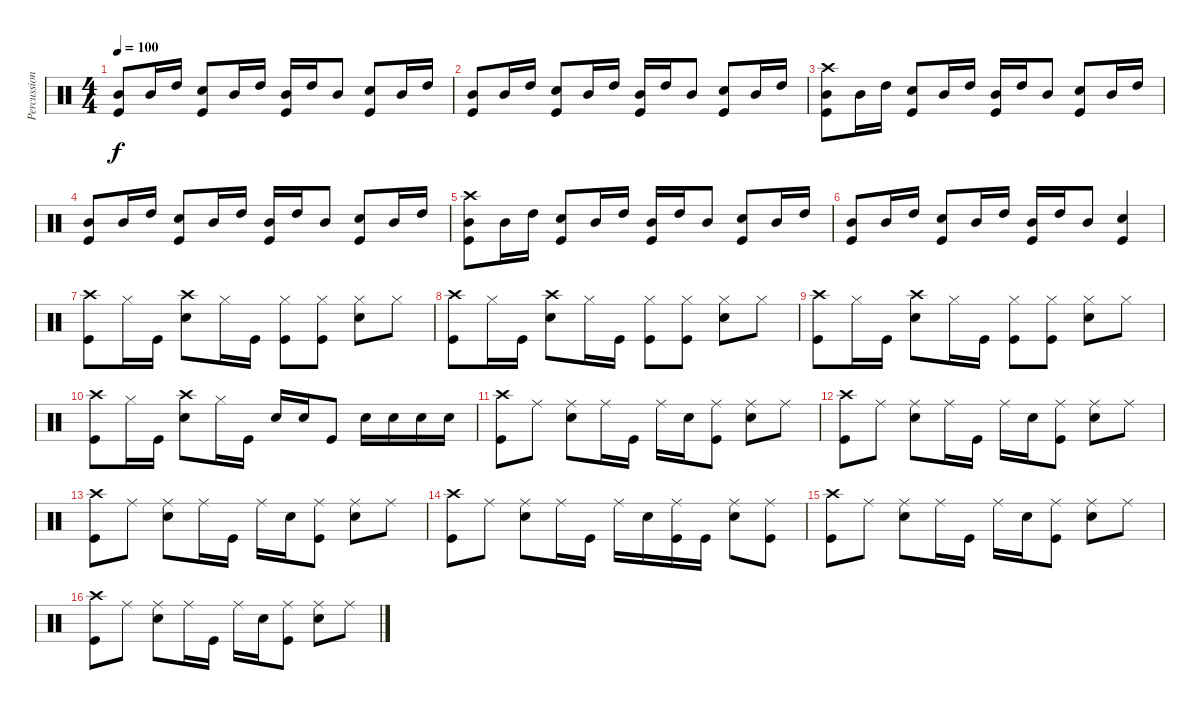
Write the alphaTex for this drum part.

\track ("Percussions" "Percussion") {instrument percussion}
\staff {score}
\articulation defaults
\ts (4 4)
\tempo 100
\clef neutral
\ks c
("Kick (hit)" "Mid Tom (hit)").8{dy f} "Mid Tom (hit)".16 "High Tom (hit)".16 ("Snare (hit) 2" "Kick (hit)").8 "Mid Tom (hit)".16 "High Tom (hit)".16 ("Kick (hit)" "Mid Tom (hit)").16 "High Tom (hit)".16 "Mid Tom (hit)".8 ("Snare (hit) 2" "Kick (hit)").8 "Mid Tom (hit)".16 "High Tom (hit)".16 |
("Kick (hit)" "Mid Tom (hit)").8 "Mid Tom (hit)".16 "High Tom (hit)".16 ("Snare (hit) 2" "Kick (hit)").8 "Mid Tom (hit)".16 "High Tom (hit)".16 ("Kick (hit)" "Mid Tom (hit)").16 "High Tom (hit)".16 "Mid Tom (hit)".8 ("Snare (hit) 2" "Kick (hit)").8 "Mid Tom (hit)".16 "High Tom (hit)".16 |
("Kick (hit)" "Mid Tom (hit)" "Crash high (hit)").8 "Mid Tom (hit)".16 "High Tom (hit)".16 ("Snare (hit) 2" "Kick (hit)").8 "Mid Tom (hit)".16 "High Tom (hit)".16 ("Kick (hit)" "Mid Tom (hit)").16 "High Tom (hit)".16 "Mid Tom (hit)".8 ("Snare (hit) 2" "Kick (hit)").8 "Mid Tom (hit)".16 "High Tom (hit)".16 |
("Kick (hit)" "Mid Tom (hit)").8 "Mid Tom (hit)".16 "High Tom (hit)".16 ("Snare (hit) 2" "Kick (hit)").8 "Mid Tom (hit)".16 "High Tom (hit)".16 ("Kick (hit)" "Mid Tom (hit)").16 "High Tom (hit)".16 "Mid Tom (hit)".8 ("Snare (hit) 2" "Kick (hit)").8 "Mid Tom (hit)".16 "High Tom (hit)".16 |
("Kick (hit)" "Mid Tom (hit)" "Crash high (hit)").8 "Mid Tom (hit)".16 "High Tom (hit)".16 ("Snare (hit) 2" "Kick (hit)").8 "Mid Tom (hit)".16 "High Tom (hit)".16 ("Kick (hit)" "Mid Tom (hit)").16 "High Tom (hit)".16 "Mid Tom (hit)".8 ("Snare (hit) 2" "Kick (hit)").8 "Mid Tom (hit)".16 "High Tom (hit)".16 |
("Kick (hit)" "Mid Tom (hit)").8 "Mid Tom (hit)".16 "High Tom (hit)".16 ("Snare (hit) 2" "Kick (hit)").8 "Mid Tom (hit)".16 "High Tom (hit)".16 ("Kick (hit)" "Mid Tom (hit)").16 "High Tom (hit)".16 "Mid Tom (hit)".8 ("Snare (hit) 2" "Kick (hit)").4 |
("Crash high (hit)" "Kick (hit)").8 "Hi-Hat (closed)".16 "Kick (hit)".16 ("Crash high (hit)" "Snare (hit) 2").8 "Hi-Hat (closed)".16 "Kick (hit)".16 ("Kick (hit)" "Hi-Hat (closed)").8 ("Kick (hit)" "Hi-Hat (closed)").8 ("Snare (hit) 2" "Hi-Hat (closed)").8 "Hi-Hat (closed)".8 |
("Crash high (hit)" "Kick (hit)").8 "Hi-Hat (closed)".16 "Kick (hit)".16 ("Crash high (hit)" "Snare (hit) 2").8 "Hi-Hat (closed)".16 "Kick (hit)".16 ("Kick (hit)" "Hi-Hat (closed)").8 ("Kick (hit)" "Hi-Hat (closed)").8 ("Snare (hit) 2" "Hi-Hat (closed)").8 "Hi-Hat (closed)".8 |
("Crash high (hit)" "Kick (hit)").8 "Hi-Hat (closed)".16 "Kick (hit)".16 ("Crash high (hit)" "Snare (hit) 2").8 "Hi-Hat (closed)".16 "Kick (hit)".16 ("Kick (hit)" "Hi-Hat (closed)").8 ("Kick (hit)" "Hi-Hat (closed)").8 ("Snare (hit) 2" "Hi-Hat (closed)").8 "Hi-Hat (closed)".8 |
("Crash high (hit)" "Kick (hit)").8 "Hi-Hat (closed)".16 "Kick (hit)".16 ("Crash high (hit)" "Snare (hit) 2").8 "Hi-Hat (closed)".16 "Kick (hit)".16 "Snare (hit) 2".16 "Snare (hit) 2".16 "Kick (hit)".8 "Snare (hit) 2".16 "Snare (hit) 2".16 "Snare (hit) 2".16 "Snare (hit) 2".16 |
("Crash high (hit)" "Kick (hit)").8 "Ride (middle)".8 ("Snare (hit) 2" "Ride (middle)").8 "Ride (middle)".16 "Kick (hit)".16 "Ride (middle)".16 "Snare (hit) 2".16 ("Kick (hit)" "Ride (middle)").8 ("Snare (hit) 2" "Ride (middle)").8 "Ride (middle)".8 |
("Crash high (hit)" "Kick (hit)").8 "Ride (middle)".8 ("Snare (hit) 2" "Ride (middle)").8 "Ride (middle)".16 "Kick (hit)".16 "Ride (middle)".16 "Snare (hit) 2".16 ("Kick (hit)" "Ride (middle)").8 ("Snare (hit) 2" "Ride (middle)").8 "Ride (middle)".8 |
("Crash high (hit)" "Kick (hit)").8 "Ride (middle)".8 ("Snare (hit) 2" "Ride (middle)").8 "Ride (middle)".16 "Kick (hit)".16 "Ride (middle)".16 "Snare (hit) 2".16 ("Kick (hit)" "Ride (middle)").8 ("Snare (hit) 2" "Ride (middle)").8 "Ride (middle)".8 |
("Crash high (hit)" "Kick (hit)").8 "Ride (middle)".8 ("Snare (hit) 2" "Ride (middle)").8 "Ride (middle)".16 "Kick (hit)".16 "Ride (middle)".16 "Snare (hit) 2".16 ("Kick (hit)" "Ride (middle)").16 "Kick (hit)".16 ("Ride (middle)" "Snare (hit) 2").8 ("Ride (middle)" "Kick (hit)").8 |
("Crash high (hit)" "Kick (hit)").8 "Ride (middle)".8 ("Snare (hit) 2" "Ride (middle)").8 "Ride (middle)".16 "Kick (hit)".16 "Ride (middle)".16 "Snare (hit) 2".16 ("Kick (hit)" "Ride (middle)").8 ("Snare (hit) 2" "Ride (middle)").8 "Ride (middle)".8 |
("Crash high (hit)" "Kick (hit)").8 "Ride (middle)".8 ("Snare (hit) 2" "Ride (middle)").8 "Ride (middle)".16 "Kick (hit)".16 "Ride (middle)".16 "Snare (hit) 2".16 ("Kick (hit)" "Ride (middle)").8 ("Snare (hit) 2" "Ride (middle)").8 "Ride (middle)".8
